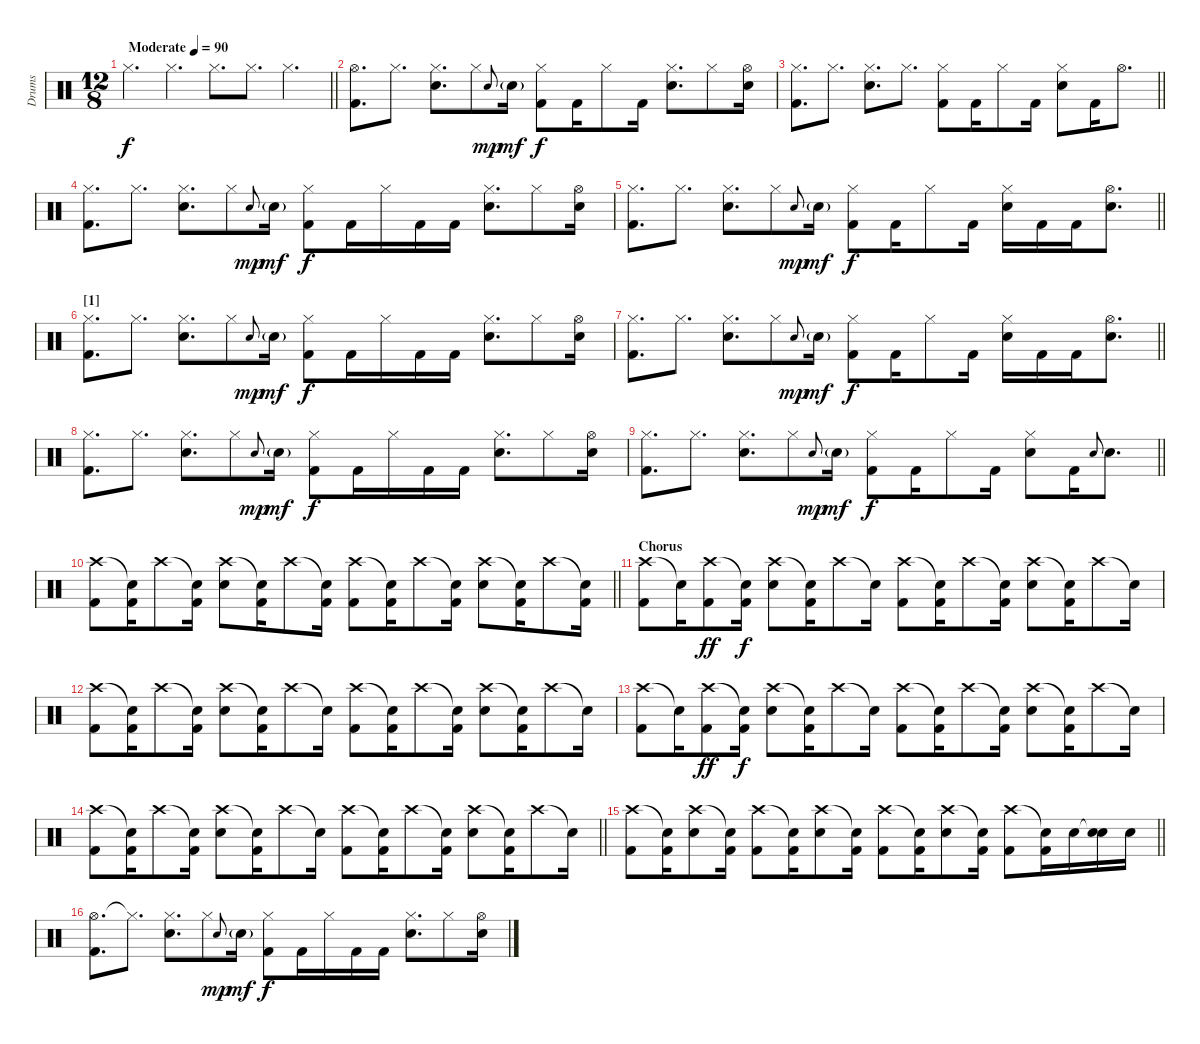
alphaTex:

\track ("Drums" "Drums") {instrument percussion}
\staff {score}
\articulation defaults
\ts (12 8)
\tempo (90 "Moderate")
\clef neutral
\barLineRight lightlight
\ks c "Hi-Hat (closed)".4{d dy f} "Hi-Hat (closed)".4{d} "Hi-Hat (closed)".8{d} "Hi-Hat (closed)".8{d} "Hi-Hat (closed)".4{d}
|
\section ("" "")
("Hi-Hat (open)" "Kick (hit) 2").8{d} "Hi-Hat (closed)".8{d} ("Hi-Hat (closed)" "Electric Snare (hit)").8{d} "Hi-Hat (closed)".8 "Electric Snare (hit)".8{gr onbeat dy mp} "Electric Snare (hit)"{g}.16{dy mf} ("Hi-Hat (closed)" "Kick (hit) 2").8{dy f} "Kick (hit) 2".16 "Hi-Hat (closed)".8 "Kick (hit) 2".16 ("Hi-Hat (closed)" "Electric Snare (hit)").8{d} "Hi-Hat (closed)".8 ("Hi-Hat (open)" "Electric Snare (hit)").16 |
\barLineRight lightlight
("Hi-Hat (closed)" "Kick (hit) 2").8{d} "Hi-Hat (closed)".8{d} ("Hi-Hat (closed)" "Electric Snare (hit)").8{d} "Hi-Hat (closed)".8{d} ("Hi-Hat (closed)" "Kick (hit) 2").8 "Kick (hit) 2".16 "Hi-Hat (closed)".8 "Kick (hit) 2".16 ("Hi-Hat (closed)" "Electric Snare (hit)").8 "Kick (hit) 2".16 "Hi-Hat (open)".8{d} |
("Hi-Hat (closed)" "Kick (hit) 2").8{d} "Hi-Hat (closed)".8{d} ("Hi-Hat (closed)" "Electric Snare (hit)").8{d} "Hi-Hat (closed)".8 "Electric Snare (hit)".8{gr onbeat dy mp} "Electric Snare (hit)"{g}.16{dy mf} ("Hi-Hat (closed)" "Kick (hit) 2").8{dy f} "Kick (hit) 2".16 "Hi-Hat (closed)".16 "Kick (hit) 2".16 "Kick (hit) 2".16 ("Hi-Hat (closed)" "Electric Snare (hit)").8{d} "Hi-Hat (closed)".8 ("Hi-Hat (open)" "Electric Snare (hit)").16 |
\barLineRight lightlight
("Hi-Hat (closed)" "Kick (hit) 2").8{d} "Hi-Hat (closed)".8{d} ("Hi-Hat (closed)" "Electric Snare (hit)").8{d} "Hi-Hat (closed)".8 "Electric Snare (hit)".8{gr onbeat dy mp} "Electric Snare (hit)"{g}.16{dy mf} ("Hi-Hat (closed)" "Kick (hit) 2").8{dy f} "Kick (hit) 2".16 "Hi-Hat (closed)".8 "Kick (hit) 2".16 ("Hi-Hat (closed)" "Electric Snare (hit)").16 "Kick (hit) 2".16 "Kick (hit) 2".16 ("Hi-Hat (open)" "Electric Snare (hit)").8{d} |
\section ("" "[1]")
("Hi-Hat (closed)" "Kick (hit) 2").8{d} "Hi-Hat (closed)".8{d} ("Hi-Hat (closed)" "Electric Snare (hit)").8{d} "Hi-Hat (closed)".8 "Electric Snare (hit)".8{gr onbeat dy mp} "Electric Snare (hit)"{g}.16{dy mf} ("Hi-Hat (closed)" "Kick (hit) 2").8{dy f} "Kick (hit) 2".16 "Hi-Hat (closed)".16 "Kick (hit) 2".16 "Kick (hit) 2".16 ("Hi-Hat (closed)" "Electric Snare (hit)").8{d} "Hi-Hat (closed)".8 ("Hi-Hat (open)" "Electric Snare (hit)").16 |
\barLineRight lightlight
("Hi-Hat (closed)" "Kick (hit) 2").8{d} "Hi-Hat (closed)".8{d} ("Hi-Hat (closed)" "Electric Snare (hit)").8{d} "Hi-Hat (closed)".8 "Electric Snare (hit)".8{gr onbeat dy mp} "Electric Snare (hit)"{g}.16{dy mf} ("Hi-Hat (closed)" "Kick (hit) 2").8{dy f} "Kick (hit) 2".16 "Hi-Hat (closed)".8 "Kick (hit) 2".16 ("Hi-Hat (closed)" "Electric Snare (hit)").16 "Kick (hit) 2".16 "Kick (hit) 2".16 ("Hi-Hat (open)" "Electric Snare (hit)").8{d} |
("Hi-Hat (closed)" "Kick (hit) 2").8{d} "Hi-Hat (closed)".8{d} ("Hi-Hat (closed)" "Electric Snare (hit)").8{d} "Hi-Hat (closed)".8 "Electric Snare (hit)".8{gr onbeat dy mp} "Electric Snare (hit)"{g}.16{dy mf} ("Hi-Hat (closed)" "Kick (hit) 2").8{dy f} "Kick (hit) 2".16 "Hi-Hat (closed)".16 "Kick (hit) 2".16 "Kick (hit) 2".16 ("Hi-Hat (closed)" "Electric Snare (hit)").8{d} "Hi-Hat (closed)".8 ("Hi-Hat (open)" "Electric Snare (hit)").16 |
\barLineRight lightlight
("Hi-Hat (closed)" "Kick (hit) 2").8{d} "Hi-Hat (closed)".8{d} ("Hi-Hat (closed)" "Electric Snare (hit)").8{d} "Hi-Hat (closed)".8 "Electric Snare (hit)".8{gr onbeat dy mp} "Electric Snare (hit)"{g}.16{dy mf} ("Hi-Hat (closed)" "Kick (hit) 2").8{dy f} "Kick (hit) 2".16 "Hi-Hat (closed)".8 "Kick (hit) 2".16 ("Hi-Hat (closed)" "Electric Snare (hit)").8 "Kick (hit) 2".16 "Electric Snare (hit)".8{gr onbeat} "Electric Snare (hit)".8{d} |
\section ("" "")
\barLineRight lightlight
("Crash high (hit)" "Kick (hit) 2").8 ("Snare (hit)"{t} "Kick (hit) 2").16 "Crash high (hit)".8 ("Snare (hit)"{t} "Kick (hit) 2").16 ("Crash high (hit)" "Electric Snare (hit)").8 ("Snare (hit)"{t} "Kick (hit) 2").16 "Crash high (hit)".8 ("Snare (hit)"{t} "Kick (hit) 2").16 ("Crash high (hit)" "Kick (hit) 2").8 ("Snare (hit)"{t} "Kick (hit) 2").16 "Crash high (hit)".8 ("Snare (hit)"{t} "Kick (hit) 2").16 ("Crash high (hit)" "Electric Snare (hit)").8 ("Snare (hit)"{t} "Kick (hit) 2").16 "Crash high (hit)".8 ("Snare (hit)"{t} "Kick (hit) 2").16 |
\section ("" "Chorus")
("Crash high (hit)" "Kick (hit) 2").8 "Snare (hit)"{t}.16 ("Crash high (hit)" "Kick (hit) 2").8{dy ff} ("Snare (hit)"{t} "Kick (hit) 2").16{dy f} ("Crash high (hit)" "Electric Snare (hit)").8 ("Snare (hit)"{t} "Kick (hit) 2").16 "Crash high (hit)".8 "Snare (hit)"{t}.16 ("Crash high (hit)" "Kick (hit) 2").8 ("Snare (hit)"{t} "Kick (hit) 2").16 "Crash high (hit)".8 ("Snare (hit)"{t} "Kick (hit) 2").16 ("Crash high (hit)" "Electric Snare (hit)").8 ("Snare (hit)"{t} "Kick (hit) 2").16 "Crash high (hit)".8 "Snare (hit)"{t}.16 |
("Crash high (hit)" "Kick (hit) 2").8 ("Snare (hit)"{t} "Kick (hit) 2").16 "Crash high (hit)".8 ("Snare (hit)"{t} "Kick (hit) 2").16 ("Crash high (hit)" "Electric Snare (hit)").8 ("Snare (hit)"{t} "Kick (hit) 2").16 "Crash high (hit)".8 "Snare (hit)"{t}.16 ("Crash high (hit)" "Kick (hit) 2").8 ("Snare (hit)"{t} "Kick (hit) 2").16 "Crash high (hit)".8 ("Snare (hit)"{t} "Kick (hit) 2").16 ("Crash high (hit)" "Electric Snare (hit)").8 ("Snare (hit)"{t} "Kick (hit) 2").16 "Crash high (hit)".8 "Snare (hit)"{t}.16 |
("Crash high (hit)" "Kick (hit) 2").8 "Snare (hit)"{t}.16 ("Crash high (hit)" "Kick (hit) 2").8{dy ff} ("Snare (hit)"{t} "Kick (hit) 2").16{dy f} ("Crash high (hit)" "Electric Snare (hit)").8 ("Snare (hit)"{t} "Kick (hit) 2").16 "Crash high (hit)".8 "Snare (hit)"{t}.16 ("Crash high (hit)" "Kick (hit) 2").8 ("Snare (hit)"{t} "Kick (hit) 2").16 "Crash high (hit)".8 ("Snare (hit)"{t} "Kick (hit) 2").16 ("Crash high (hit)" "Electric Snare (hit)").8 ("Snare (hit)"{t} "Kick (hit) 2").16 "Crash high (hit)".8 "Snare (hit)"{t}.16 |
\barLineRight lightlight
("Crash high (hit)" "Kick (hit) 2").8 ("Snare (hit)"{t} "Kick (hit) 2").16 "Crash high (hit)".8 ("Snare (hit)"{t} "Kick (hit) 2").16 ("Crash high (hit)" "Electric Snare (hit)").8 ("Snare (hit)"{t} "Kick (hit) 2").16 "Crash high (hit)".8 "Snare (hit)"{t}.16 ("Crash high (hit)" "Kick (hit) 2").8 ("Snare (hit)"{t} "Kick (hit) 2").16 "Crash high (hit)".8 ("Snare (hit)"{t} "Kick (hit) 2").16 ("Crash high (hit)" "Electric Snare (hit)").8 ("Snare (hit)"{t} "Kick (hit) 2").16 "Crash high (hit)".8 "Snare (hit)"{t}.16 |
\section ("" "")
\barLineRight lightlight
("Crash high (hit)" "Kick (hit) 2").8 ("Snare (hit)"{t} "Kick (hit) 2").16 ("Crash high (hit)" "Electric Snare (hit)").8 ("Snare (hit)"{t} "Kick (hit) 2").16 ("Crash high (hit)" "Kick (hit) 2").8 ("Snare (hit)"{t} "Kick (hit) 2").16 ("Crash high (hit)" "Electric Snare (hit)").8 ("Snare (hit)"{t} "Kick (hit) 2").16 ("Crash high (hit)" "Kick (hit) 2").8 ("Snare (hit)"{t} "Kick (hit) 2").16 ("Crash high (hit)" "Electric Snare (hit)").8 ("Snare (hit)"{t} "Kick (hit) 2").16 ("Crash high (hit)" "Kick (hit) 2").8 ("Snare (hit)"{t} "Kick (hit) 2").16 "Electric Snare (hit)".16 ("Snare (hit)"{t} "Electric Snare (hit)").16 "Electric Snare (hit)".16 |
\section ("" "")
("Hi-Hat (open)" "Kick (hit) 2").8{d} "Hi-Hat (closed)"{t}.8{d} ("Hi-Hat (closed)" "Electric Snare (hit)").8{d} "Hi-Hat (closed)".8 "Electric Snare (hit)".8{gr onbeat dy mp} "Electric Snare (hit)"{g}.16{dy mf} ("Hi-Hat (closed)" "Kick (hit) 2").8{dy f} "Kick (hit) 2".16 "Hi-Hat (closed)".16 "Kick (hit) 2".16 "Kick (hit) 2".16 ("Hi-Hat (closed)" "Electric Snare (hit)").8{d} "Hi-Hat (closed)".8 ("Hi-Hat (open)" "Electric Snare (hit)").16
